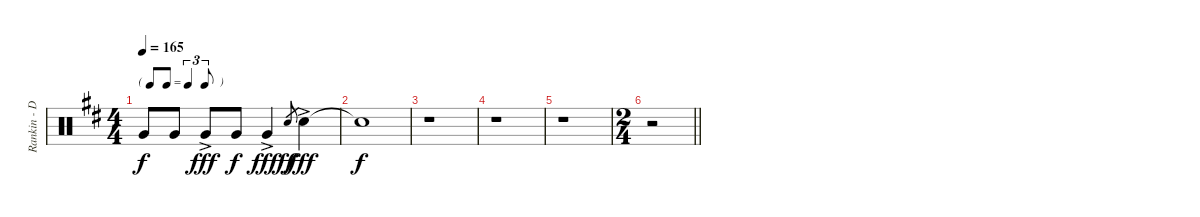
\track ("Rankin - Drums" "Rankin - D") {instrument percussion}
\staff {score}
\articulation defaults
\ts (4 4)
\tf triplet8th
\tempo 165
\clef neutral
\ks d "Very Low Tom (hit)".8{dy f} "Very Low Tom (hit)".8 "Very Low Tom (hit)"{ac}.8{dy fff} "Very Low Tom (hit)".8{dy f} "Very Low Tom (hit)"{ac}.4{dy fff} "Electric Snare (hit)".8{gr dy ff} "Electric Snare (hit)"{ac}.4{dy fff}
|
"Snare (hit)"{t}.1{dy f} |
r.1 |
r.1 |
r.1 |
\ts (2 4)
\barLineRight lightlight
r.2
